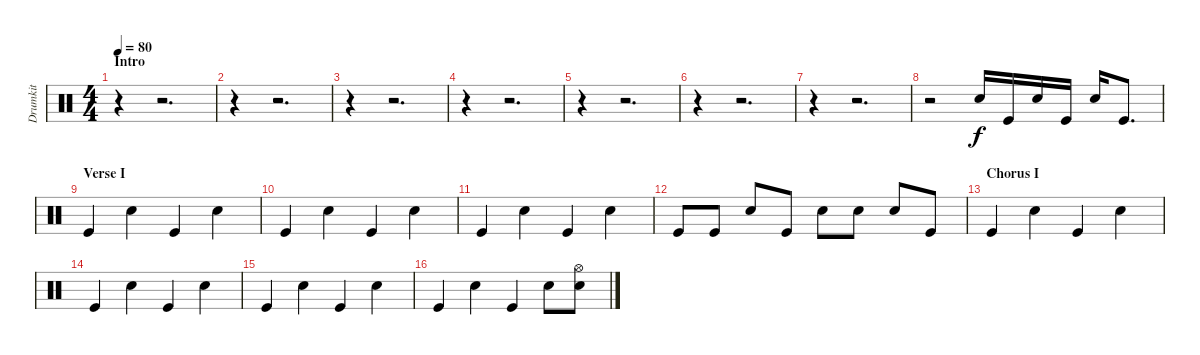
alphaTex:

\track ("Drumkit" "Drumkit") {instrument percussion}
\staff {score}
\articulation defaults
\ts (4 4)
\section ("" "Intro")
\tempo 80
\clef neutral
\ks c
r.4{dy f} r.2{d} |
r.4 r.2{d} |
r.4 r.2{d} |
r.4 r.2{d} |
r.4 r.2{d} |
r.4 r.2{d} |
r.4 r.2{d} |
r.2 "Snare (hit) 2".16 "Kick (hit)".16 "Snare (hit) 2".16 "Kick (hit)".16 "Snare (hit) 2".16 "Kick (hit)".8{d} |
\section ("" "Verse I")
"Kick (hit)".4 "Snare (hit) 2".4 "Kick (hit)".4 "Snare (hit) 2".4 |
"Kick (hit)".4 "Snare (hit) 2".4 "Kick (hit)".4 "Snare (hit) 2".4 |
"Kick (hit)".4 "Snare (hit) 2".4 "Kick (hit)".4 "Snare (hit) 2".4 |
"Kick (hit)".8 "Kick (hit)".8 "Snare (hit) 2".8 "Kick (hit)".8 "Snare (hit) 2".8 "Snare (hit) 2".8 "Snare (hit) 2".8 "Kick (hit)".8 |
\section ("" "Chorus I")
"Kick (hit)".4 "Snare (hit) 2".4 "Kick (hit)".4 "Snare (hit) 2".4 |
"Kick (hit)".4 "Snare (hit) 2".4 "Kick (hit)".4 "Snare (hit) 2".4 |
"Kick (hit)".4 "Snare (hit) 2".4 "Kick (hit)".4 "Snare (hit) 2".4 |
"Kick (hit)".4 "Snare (hit) 2".4 "Kick (hit)".4 "Snare (hit) 2".8 ("Hi-Hat (open)" "Snare (hit) 2").8
